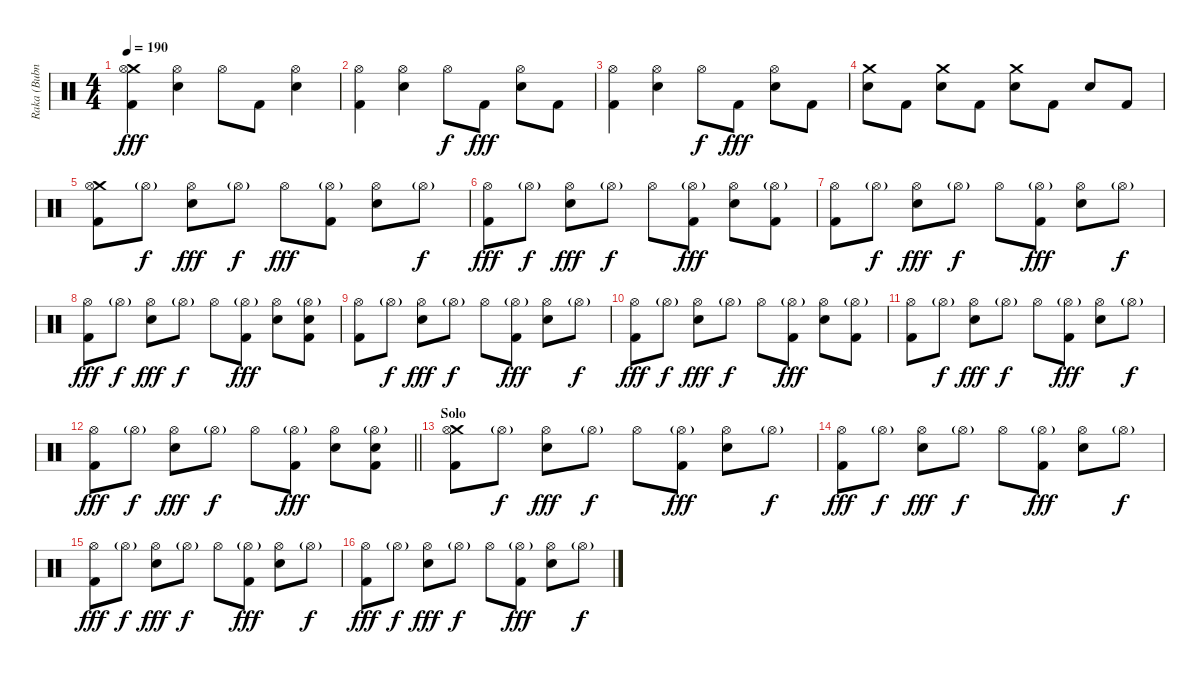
\track ("Raka (Bubnjevi)" "Raka (Bubn") {instrument percussion}
\staff {score}
\articulation defaults
\ts (4 4)
\tempo 190
\clef neutral
\ks c
("Crash medium (hit)" "Hi-Hat (open)" "Kick (hit) 2").4{dy fff} ("Hi-Hat (open)" "Snare (hit) 2").4 "Hi-Hat (open)".8 "Kick (hit) 2".8 ("Hi-Hat (open)" "Snare (hit) 2").4 |
("Hi-Hat (open)" "Kick (hit) 2").4 ("Hi-Hat (open)" "Snare (hit) 2").4 "Hi-Hat (open)".8{dy f} "Kick (hit) 2".8{dy fff} ("Hi-Hat (open)" "Snare (hit) 2").8 "Kick (hit) 2".8 |
("Hi-Hat (open)" "Kick (hit) 2").4 ("Hi-Hat (open)" "Snare (hit) 2").4 "Hi-Hat (open)".8{dy f} "Kick (hit) 2".8{dy fff} ("Hi-Hat (open)" "Snare (hit) 2").8 "Kick (hit) 2".8 |
("Crash medium (hit)" "Snare (hit) 2").8 "Kick (hit) 2".8 ("Crash medium (hit)" "Snare (hit) 2").8 "Kick (hit) 2".8 ("Crash medium (hit)" "Snare (hit) 2").8 "Kick (hit) 2".8 "Snare (hit) 2".8 "Kick (hit) 2".8 |
("Crash medium (hit)" "Hi-Hat (open)" "Kick (hit) 2").8 "Hi-Hat (open)"{g}.8{dy f} ("Hi-Hat (open)" "Snare (hit) 2").8{dy fff} "Hi-Hat (open)"{g}.8{dy f} "Hi-Hat (open)".8{dy fff} ("Hi-Hat (open)"{g} "Kick (hit) 2").8 ("Hi-Hat (open)" "Snare (hit) 2").8 "Hi-Hat (open)"{g}.8{dy f} |
("Hi-Hat (open)" "Kick (hit) 2").8{dy fff} "Hi-Hat (open)"{g}.8{dy f} ("Hi-Hat (open)" "Snare (hit) 2").8{dy fff} "Hi-Hat (open)"{g}.8{dy f} "Hi-Hat (open)".8 ("Hi-Hat (open)"{g} "Kick (hit) 2").8{dy fff} ("Hi-Hat (open)" "Snare (hit) 2").8 ("Hi-Hat (open)"{g} "Kick (hit) 2").8 |
("Hi-Hat (open)" "Kick (hit) 2").8 "Hi-Hat (open)"{g}.8{dy f} ("Hi-Hat (open)" "Snare (hit) 2").8{dy fff} "Hi-Hat (open)"{g}.8{dy f} "Hi-Hat (open)".8 ("Hi-Hat (open)"{g} "Kick (hit) 2").8{dy fff} ("Hi-Hat (open)" "Snare (hit) 2").8 "Hi-Hat (open)"{g}.8{dy f} |
("Hi-Hat (open)" "Kick (hit) 2").8{dy fff} "Hi-Hat (open)"{g}.8{dy f} ("Hi-Hat (open)" "Snare (hit) 2").8{dy fff} "Hi-Hat (open)"{g}.8{dy f} "Hi-Hat (open)".8 ("Hi-Hat (open)"{g} "Kick (hit) 2").8{dy fff} ("Hi-Hat (open)" "Snare (hit) 2").8 ("Hi-Hat (open)"{g} "Snare (hit) 2" "Kick (hit) 2").8 |
("Hi-Hat (open)" "Kick (hit) 2").8 "Hi-Hat (open)"{g}.8{dy f} ("Hi-Hat (open)" "Snare (hit) 2").8{dy fff} "Hi-Hat (open)"{g}.8{dy f} "Hi-Hat (open)".8 ("Hi-Hat (open)"{g} "Kick (hit) 2").8{dy fff} ("Hi-Hat (open)" "Snare (hit) 2").8 "Hi-Hat (open)"{g}.8{dy f} |
("Hi-Hat (open)" "Kick (hit) 2").8{dy fff} "Hi-Hat (open)"{g}.8{dy f} ("Hi-Hat (open)" "Snare (hit) 2").8{dy fff} "Hi-Hat (open)"{g}.8{dy f} "Hi-Hat (open)".8 ("Hi-Hat (open)"{g} "Kick (hit) 2").8{dy fff} ("Hi-Hat (open)" "Snare (hit) 2").8 ("Hi-Hat (open)"{g} "Kick (hit) 2").8 |
("Hi-Hat (open)" "Kick (hit) 2").8 "Hi-Hat (open)"{g}.8{dy f} ("Hi-Hat (open)" "Snare (hit) 2").8{dy fff} "Hi-Hat (open)"{g}.8{dy f} "Hi-Hat (open)".8 ("Hi-Hat (open)"{g} "Kick (hit) 2").8{dy fff} ("Hi-Hat (open)" "Snare (hit) 2").8 "Hi-Hat (open)"{g}.8{dy f} |
\barLineRight lightlight
("Hi-Hat (open)" "Kick (hit) 2").8{dy fff} "Hi-Hat (open)"{g}.8{dy f} ("Hi-Hat (open)" "Snare (hit) 2").8{dy fff} "Hi-Hat (open)"{g}.8{dy f} "Hi-Hat (open)".8 ("Hi-Hat (open)"{g} "Kick (hit) 2").8{dy fff} ("Hi-Hat (open)" "Snare (hit) 2").8 ("Hi-Hat (open)"{g} "Snare (hit) 2" "Kick (hit) 2").8 |
\section ("" "Solo")
("Crash medium (hit)" "Hi-Hat (open)" "Kick (hit) 2").8 "Hi-Hat (open)"{g}.8{dy f} ("Hi-Hat (open)" "Snare (hit) 2").8{dy fff} "Hi-Hat (open)"{g}.8{dy f} "Hi-Hat (open)".8 ("Hi-Hat (open)"{g} "Kick (hit) 2").8{dy fff} ("Hi-Hat (open)" "Snare (hit) 2").8 "Hi-Hat (open)"{g}.8{dy f} |
("Hi-Hat (open)" "Kick (hit) 2").8{dy fff} "Hi-Hat (open)"{g}.8{dy f} ("Hi-Hat (open)" "Snare (hit) 2").8{dy fff} "Hi-Hat (open)"{g}.8{dy f} "Hi-Hat (open)".8 ("Hi-Hat (open)"{g} "Kick (hit) 2").8{dy fff} ("Hi-Hat (open)" "Snare (hit) 2").8 "Hi-Hat (open)"{g}.8{dy f} |
("Hi-Hat (open)" "Kick (hit) 2").8{dy fff} "Hi-Hat (open)"{g}.8{dy f} ("Hi-Hat (open)" "Snare (hit) 2").8{dy fff} "Hi-Hat (open)"{g}.8{dy f} "Hi-Hat (open)".8 ("Hi-Hat (open)"{g} "Kick (hit) 2").8{dy fff} ("Hi-Hat (open)" "Snare (hit) 2").8 "Hi-Hat (open)"{g}.8{dy f} |
("Hi-Hat (open)" "Kick (hit) 2").8{dy fff} "Hi-Hat (open)"{g}.8{dy f} ("Hi-Hat (open)" "Snare (hit) 2").8{dy fff} "Hi-Hat (open)"{g}.8{dy f} "Hi-Hat (open)".8 ("Hi-Hat (open)"{g} "Kick (hit) 2").8{dy fff} ("Hi-Hat (open)" "Snare (hit) 2").8 "Hi-Hat (open)"{g}.8{dy f}
